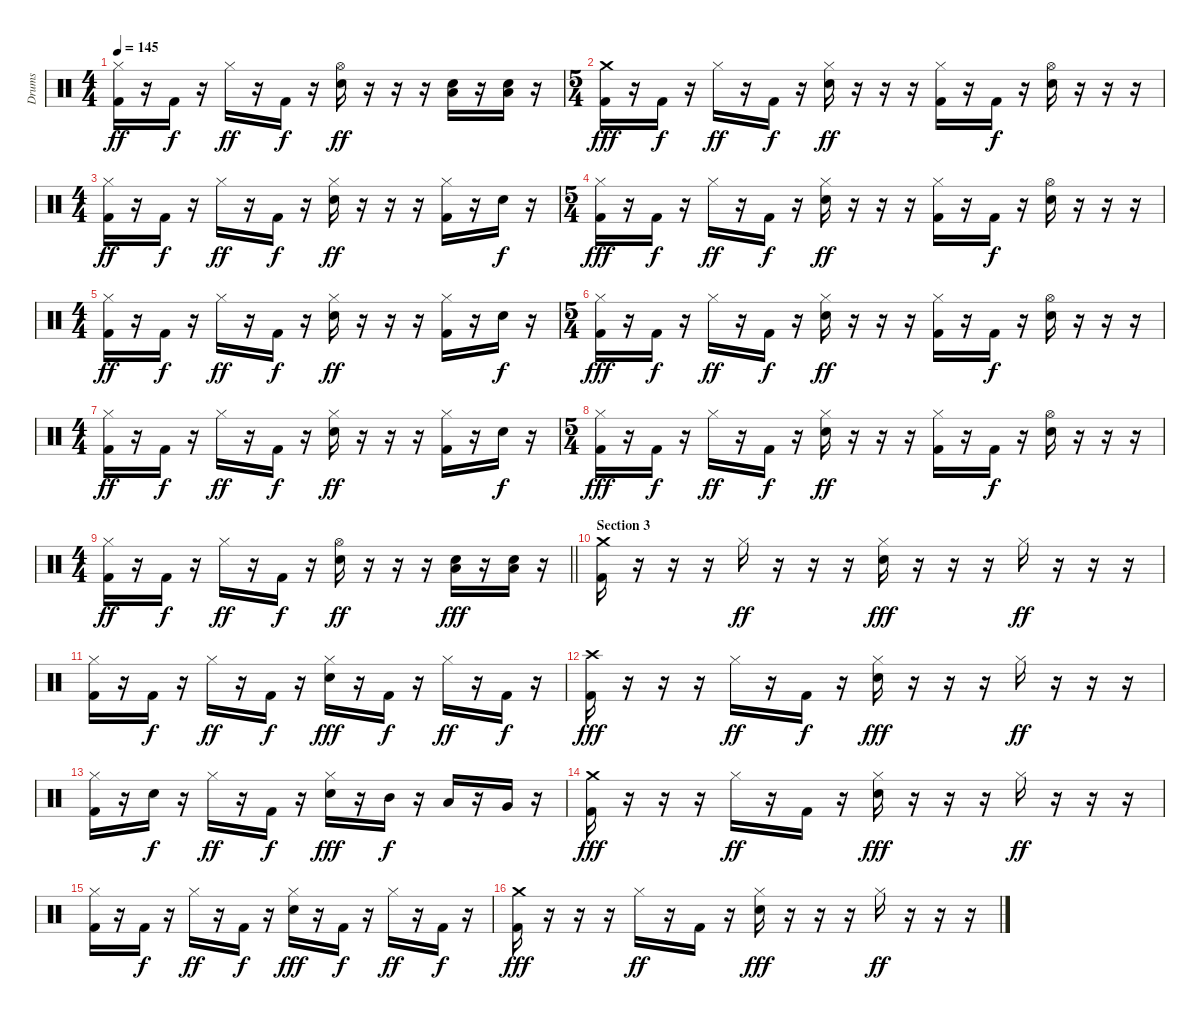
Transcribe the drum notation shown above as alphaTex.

\track ("Drums" "Drums") {instrument percussion}
\staff {score}
\articulation defaults
\ts (4 4)
\tempo 145
\clef neutral
\ks c
("Hi-Hat (closed)" "Kick (hit) 2").16{dy ff} r.16 "Kick (hit) 2".16{dy f} r.16 "Hi-Hat (closed)".16{dy ff} r.16 "Kick (hit) 2".16{dy f} r.16 ("Hi-Hat (open)" "Electric Snare (hit)").16{dy ff} r.16 r.16 r.16 ("Low Floor Tom (hit)" "Electric Snare (hit)").16 r.16 ("Low Floor Tom (hit)" "Electric Snare (hit)").16 r.16 |
\ts (5 4)
("Crash medium (hit)" "Kick (hit) 2").16{dy fff} r.16 "Kick (hit) 2".16{dy f} r.16 "Hi-Hat (closed)".16{dy ff} r.16 "Kick (hit) 2".16{dy f} r.16 ("Hi-Hat (closed)" "Electric Snare (hit)").16{dy ff} r.16 r.16 r.16 ("Hi-Hat (closed)" "Kick (hit) 2").16 r.16 "Kick (hit) 2".16{dy f} r.16 ("Hi-Hat (open)" "Electric Snare (hit)").16 r.16 r.16 r.16 |
\ts (4 4)
("Hi-Hat (closed)" "Kick (hit) 2").16{dy ff} r.16 "Kick (hit) 2".16{dy f} r.16 "Hi-Hat (closed)".16{dy ff} r.16 "Kick (hit) 2".16{dy f} r.16 ("Hi-Hat (closed)" "Electric Snare (hit)").16{dy ff} r.16 r.16 r.16 ("Hi-Hat (closed)" "Kick (hit) 2").16 r.16 "Electric Snare (hit)".16{dy f} r.16 |
\ts (5 4)
("Hi-Hat (closed)" "Kick (hit) 2").16{dy fff} r.16 "Kick (hit) 2".16{dy f} r.16 "Hi-Hat (closed)".16{dy ff} r.16 "Kick (hit) 2".16{dy f} r.16 ("Hi-Hat (closed)" "Electric Snare (hit)").16{dy ff} r.16 r.16 r.16 ("Hi-Hat (closed)" "Kick (hit) 2").16 r.16 "Kick (hit) 2".16{dy f} r.16 ("Hi-Hat (open)" "Electric Snare (hit)").16 r.16 r.16 r.16 |
\ts (4 4)
("Hi-Hat (closed)" "Kick (hit) 2").16{dy ff} r.16 "Kick (hit) 2".16{dy f} r.16 "Hi-Hat (closed)".16{dy ff} r.16 "Kick (hit) 2".16{dy f} r.16 ("Hi-Hat (closed)" "Electric Snare (hit)").16{dy ff} r.16 r.16 r.16 ("Hi-Hat (closed)" "Kick (hit) 2").16 r.16 "Electric Snare (hit)".16{dy f} r.16 |
\ts (5 4)
("Hi-Hat (closed)" "Kick (hit) 2").16{dy fff} r.16 "Kick (hit) 2".16{dy f} r.16 "Hi-Hat (closed)".16{dy ff} r.16 "Kick (hit) 2".16{dy f} r.16 ("Hi-Hat (closed)" "Electric Snare (hit)").16{dy ff} r.16 r.16 r.16 ("Hi-Hat (closed)" "Kick (hit) 2").16 r.16 "Kick (hit) 2".16{dy f} r.16 ("Hi-Hat (open)" "Electric Snare (hit)").16 r.16 r.16 r.16 |
\ts (4 4)
("Hi-Hat (closed)" "Kick (hit) 2").16{dy ff} r.16 "Kick (hit) 2".16{dy f} r.16 "Hi-Hat (closed)".16{dy ff} r.16 "Kick (hit) 2".16{dy f} r.16 ("Hi-Hat (closed)" "Electric Snare (hit)").16{dy ff} r.16 r.16 r.16 ("Hi-Hat (closed)" "Kick (hit) 2").16 r.16 "Electric Snare (hit)".16{dy f} r.16 |
\ts (5 4)
("Hi-Hat (closed)" "Kick (hit) 2").16{dy fff} r.16 "Kick (hit) 2".16{dy f} r.16 "Hi-Hat (closed)".16{dy ff} r.16 "Kick (hit) 2".16{dy f} r.16 ("Hi-Hat (closed)" "Electric Snare (hit)").16{dy ff} r.16 r.16 r.16 ("Hi-Hat (closed)" "Kick (hit) 2").16 r.16 "Kick (hit) 2".16{dy f} r.16 ("Hi-Hat (open)" "Electric Snare (hit)").16 r.16 r.16 r.16 |
\ts (4 4)
\barLineRight lightlight
("Hi-Hat (closed)" "Kick (hit) 2").16{dy ff} r.16 "Kick (hit) 2".16{dy f} r.16 "Hi-Hat (closed)".16{dy ff} r.16 "Kick (hit) 2".16{dy f} r.16 ("Hi-Hat (open)" "Electric Snare (hit)").16{dy ff} r.16 r.16 r.16 ("Low Floor Tom (hit)" "Electric Snare (hit)").16{dy fff} r.16 ("Low Floor Tom (hit)" "Electric Snare (hit)").16 r.16 |
\section ("" "Section 3")
("Crash medium (hit)" "Kick (hit) 2").16 r.16 r.16 r.16 "Hi-Hat (closed)".16{dy ff} r.16 r.16 r.16 ("Hi-Hat (closed)" "Electric Snare (hit)").16{dy fff} r.16 r.16 r.16 "Hi-Hat (closed)".16{dy ff} r.16 r.16 r.16 |
("Hi-Hat (closed)" "Kick (hit) 2").16 r.16 "Kick (hit) 2".16{dy f} r.16 "Hi-Hat (closed)".16{dy ff} r.16 "Kick (hit) 2".16{dy f} r.16 ("Hi-Hat (closed)" "Electric Snare (hit)").16{dy fff} r.16 "Kick (hit) 2".16{dy f} r.16 "Hi-Hat (closed)".16{dy ff} r.16 "Kick (hit) 2".16{dy f} r.16 |
("Crash high (hit)" "Kick (hit) 2").16{dy fff} r.16 r.16 r.16 "Hi-Hat (closed)".16{dy ff} r.16 "Kick (hit) 2".16{dy f} r.16 ("Hi-Hat (closed)" "Electric Snare (hit)").16{dy fff} r.16 r.16 r.16 "Hi-Hat (closed)".16{dy ff} r.16 r.16 r.16 |
("Hi-Hat (closed)" "Kick (hit) 2").16 r.16 "Electric Snare (hit)".16{dy f} r.16 "Hi-Hat (closed)".16{dy ff} r.16 "Kick (hit) 2".16{dy f} r.16 ("Hi-Hat (closed)" "Electric Snare (hit)").16{dy fff} r.16 "Mid Tom (hit)".16{dy f} r.16 "Low Tom (hit)".16 r.16 "Very Low Tom (hit)".16 r.16 |
("Crash medium (hit)" "Kick (hit) 2").16{dy fff} r.16 r.16 r.16 "Hi-Hat (closed)".16{dy ff} r.16 "Kick (hit) 2".16 r.16 ("Hi-Hat (closed)" "Electric Snare (hit)").16{dy fff} r.16 r.16 r.16 "Hi-Hat (closed)".16{dy ff} r.16 r.16 r.16 |
("Hi-Hat (closed)" "Kick (hit) 2").16 r.16 "Kick (hit) 2".16{dy f} r.16 "Hi-Hat (closed)".16{dy ff} r.16 "Kick (hit) 2".16{dy f} r.16 ("Hi-Hat (closed)" "Electric Snare (hit)").16{dy fff} r.16 "Kick (hit) 2".16{dy f} r.16 "Hi-Hat (closed)".16{dy ff} r.16 "Kick (hit) 2".16{dy f} r.16 |
("Crash medium (hit)" "Kick (hit) 2").16{dy fff} r.16 r.16 r.16 "Hi-Hat (closed)".16{dy ff} r.16 "Kick (hit) 2".16 r.16 ("Hi-Hat (closed)" "Electric Snare (hit)").16{dy fff} r.16 r.16 r.16 "Hi-Hat (closed)".16{dy ff} r.16 r.16 r.16
